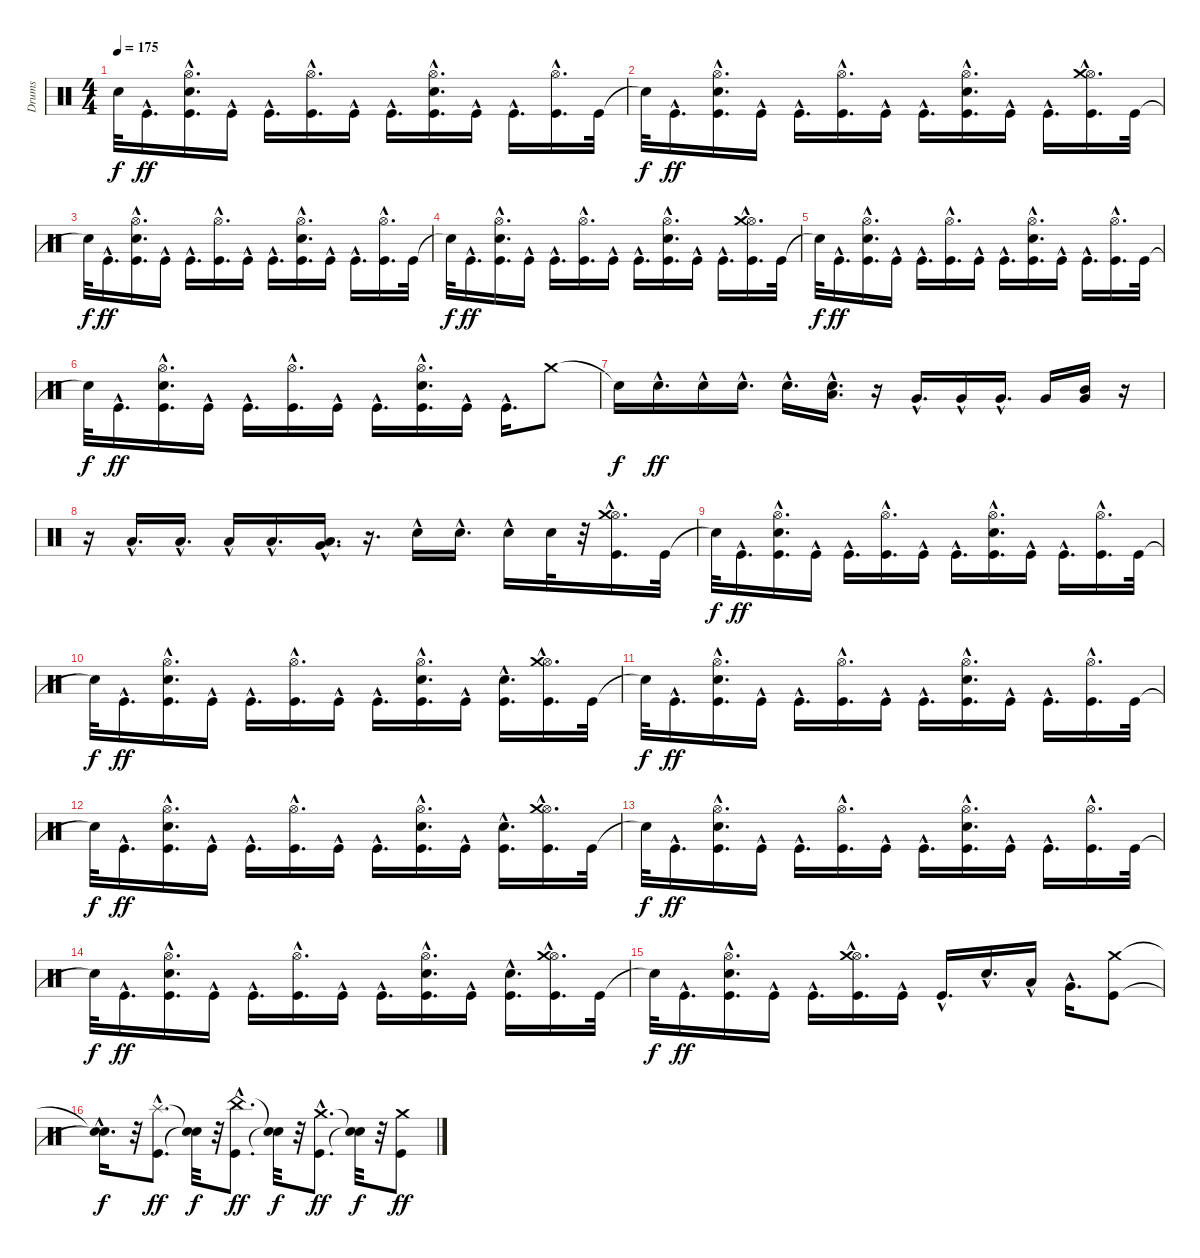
\track ("Drums" "Drums") {instrument percussion}
\staff {score}
\articulation defaults
\ts (4 4)
\tempo 175
\clef neutral
\ks c "Snare (hit)"{t}.32{dy f} "Kick (hit)"{hac}.16{d dy ff}
("Kick (hit)"{hac} "Electric Snare (hit)"{hac} "Hi-Hat (open)"{hac}).16{d} "Kick (hit)"{hac}.16 "Kick (hit)"{hac}.16{d} ("Kick (hit)"{hac} "Hi-Hat (open)"{hac}).16{d} "Kick (hit)"{hac}.16 "Kick (hit)"{hac}.16{d} ("Kick (hit)"{hac} "Electric Snare (hit)"{hac} "Hi-Hat (open)"{hac}).16{d} "Kick (hit)"{hac}.16 "Kick (hit)"{hac}.16{d} ("Kick (hit)"{hac} "Hi-Hat (open)"{hac}).16{d} "Kick (hit)".32 |
"Snare (hit)"{t}.32{dy f} "Kick (hit)"{hac}.16{d dy ff} ("Kick (hit)"{hac} "Electric Snare (hit)"{hac} "Hi-Hat (open)"{hac}).16{d} "Kick (hit)"{hac}.16 "Kick (hit)"{hac}.16{d} ("Kick (hit)"{hac} "Hi-Hat (open)"{hac}).16{d} "Kick (hit)"{hac}.16 "Kick (hit)"{hac}.16{d} ("Kick (hit)"{hac} "Electric Snare (hit)"{hac} "Hi-Hat (open)"{hac}).16{d} "Kick (hit)"{hac}.16 "Kick (hit)"{hac}.16{d} ("Kick (hit)"{hac} "Hi-Hat (open)"{hac} "Crash medium (hit)"{hac}).16{d} "Kick (hit)".32 |
"Snare (hit)"{t}.32{dy f} "Kick (hit)"{hac}.16{d dy ff} ("Kick (hit)"{hac} "Electric Snare (hit)"{hac} "Hi-Hat (open)"{hac}).16{d} "Kick (hit)"{hac}.16 "Kick (hit)"{hac}.16{d} ("Kick (hit)"{hac} "Hi-Hat (open)"{hac}).16{d} "Kick (hit)"{hac}.16 "Kick (hit)"{hac}.16{d} ("Kick (hit)"{hac} "Electric Snare (hit)"{hac} "Hi-Hat (open)"{hac}).16{d} "Kick (hit)"{hac}.16 "Kick (hit)"{hac}.16{d} ("Kick (hit)"{hac} "Hi-Hat (open)"{hac}).16{d} "Kick (hit)".32 |
"Snare (hit)"{t}.32{dy f} "Kick (hit)"{hac}.16{d dy ff} ("Kick (hit)"{hac} "Electric Snare (hit)"{hac} "Hi-Hat (open)"{hac}).16{d} "Kick (hit)"{hac}.16 "Kick (hit)"{hac}.16{d} ("Kick (hit)"{hac} "Hi-Hat (open)"{hac}).16{d} "Kick (hit)"{hac}.16 "Kick (hit)"{hac}.16{d} ("Kick (hit)"{hac} "Electric Snare (hit)"{hac} "Hi-Hat (open)"{hac}).16{d} "Kick (hit)"{hac}.16 "Kick (hit)"{hac}.16{d} ("Kick (hit)"{hac} "Hi-Hat (open)"{hac} "Crash medium (hit)"{hac}).16{d} "Kick (hit)".32 |
"Snare (hit)"{t}.32{dy f} "Kick (hit)"{hac}.16{d dy ff} ("Kick (hit)"{hac} "Electric Snare (hit)"{hac} "Hi-Hat (open)"{hac}).16{d} "Kick (hit)"{hac}.16 "Kick (hit)"{hac}.16{d} ("Kick (hit)"{hac} "Hi-Hat (open)"{hac}).16{d} "Kick (hit)"{hac}.16 "Kick (hit)"{hac}.16{d} ("Kick (hit)"{hac} "Electric Snare (hit)"{hac} "Hi-Hat (open)"{hac}).16{d} "Kick (hit)"{hac}.16 "Kick (hit)"{hac}.16{d} ("Kick (hit)"{hac} "Hi-Hat (open)"{hac}).16{d} "Kick (hit)".32 |
"Snare (hit)"{t}.32{dy f} "Kick (hit)"{hac}.16{d dy ff} ("Kick (hit)"{hac} "Electric Snare (hit)"{hac} "Hi-Hat (open)"{hac}).16{d} "Kick (hit)"{hac}.16 "Kick (hit)"{hac}.16{d} ("Kick (hit)"{hac} "Hi-Hat (open)"{hac}).16{d} "Kick (hit)"{hac}.16 "Kick (hit)"{hac}.16{d} ("Kick (hit)"{hac} "Electric Snare (hit)"{hac} "Hi-Hat (open)"{hac}).16{d} "Kick (hit)"{hac}.16 "Kick (hit)"{hac}.16{d} "Crash medium (hit)".8 |
"Snare (hit)"{t}.16{dy f} "Electric Snare (hit)"{hac}.16{d dy ff} "Electric Snare (hit)"{hac}.16 "Electric Snare (hit)"{hac}.16{d} "Electric Snare (hit)"{hac}.16{d} ("Electric Snare (hit)"{hac} "Low Tom (hit)"{hac}).16{d} r.16 "Very Low Tom (hit)"{hac}.16{d} "Very Low Tom (hit)"{hac}.16 "Very Low Tom (hit)"{hac}.16{d} "Very Low Tom (hit)".16 ("Very Low Tom (hit)" "Mid Tom (hit)").16 r.16 |
r.16 "Low Floor Tom (hit)"{hac}.16{d} "Low Floor Tom (hit)"{hac}.16{d} "Low Floor Tom (hit)"{hac}.16 "Low Floor Tom (hit)"{hac}.16{d} ("Low Floor Tom (hit)"{hac} "Very Low Tom (hit)"{hac}).16{d} r.16{d} "Electric Snare (hit)"{hac}.16 "Electric Snare (hit)"{hac}.16{d} "Electric Snare (hit)"{hac}.16 "Electric Snare (hit)".32 r.32 ("Kick (hit)"{hac} "Hi-Hat (open)"{hac} "Crash medium (hit)"{hac}).16{d} "Kick (hit)".32 |
"Snare (hit)"{t}.32{dy f} "Kick (hit)"{hac}.16{d dy ff} ("Kick (hit)"{hac} "Electric Snare (hit)"{hac} "Hi-Hat (open)"{hac}).16{d} "Kick (hit)"{hac}.16 "Kick (hit)"{hac}.16{d} ("Kick (hit)"{hac} "Hi-Hat (open)"{hac}).16{d} "Kick (hit)"{hac}.16 "Kick (hit)"{hac}.16{d} ("Kick (hit)"{hac} "Electric Snare (hit)"{hac} "Hi-Hat (open)"{hac}).16{d} "Kick (hit)"{hac}.16 "Kick (hit)"{hac}.16{d} ("Kick (hit)"{hac} "Hi-Hat (open)"{hac}).16{d} "Kick (hit)".32 |
"Snare (hit)"{t}.32{dy f} "Kick (hit)"{hac}.16{d dy ff} ("Kick (hit)"{hac} "Electric Snare (hit)"{hac} "Hi-Hat (open)"{hac}).16{d} "Kick (hit)"{hac}.16 "Kick (hit)"{hac}.16{d} ("Kick (hit)"{hac} "Hi-Hat (open)"{hac}).16{d} "Kick (hit)"{hac}.16 "Kick (hit)"{hac}.16{d} ("Kick (hit)"{hac} "Electric Snare (hit)"{hac} "Hi-Hat (open)"{hac}).16{d} "Kick (hit)"{hac}.16 ("Kick (hit)"{hac} "Electric Snare (hit)"{hac}).16{d} ("Kick (hit)"{hac} "Hi-Hat (open)"{hac} "Crash medium (hit)"{hac}).16{d} "Kick (hit)".32 |
"Snare (hit)"{t}.32{dy f} "Kick (hit)"{hac}.16{d dy ff} ("Kick (hit)"{hac} "Electric Snare (hit)"{hac} "Hi-Hat (open)"{hac}).16{d} "Kick (hit)"{hac}.16 "Kick (hit)"{hac}.16{d} ("Kick (hit)"{hac} "Hi-Hat (open)"{hac}).16{d} "Kick (hit)"{hac}.16 "Kick (hit)"{hac}.16{d} ("Kick (hit)"{hac} "Electric Snare (hit)"{hac} "Hi-Hat (open)"{hac}).16{d} "Kick (hit)"{hac}.16 "Kick (hit)"{hac}.16{d} ("Kick (hit)"{hac} "Hi-Hat (open)"{hac}).16{d} "Kick (hit)".32 |
"Snare (hit)"{t}.32{dy f} "Kick (hit)"{hac}.16{d dy ff} ("Kick (hit)"{hac} "Electric Snare (hit)"{hac} "Hi-Hat (open)"{hac}).16{d} "Kick (hit)"{hac}.16 "Kick (hit)"{hac}.16{d} ("Kick (hit)"{hac} "Hi-Hat (open)"{hac}).16{d} "Kick (hit)"{hac}.16 "Kick (hit)"{hac}.16{d} ("Kick (hit)"{hac} "Electric Snare (hit)"{hac} "Hi-Hat (open)"{hac}).16{d} "Kick (hit)"{hac}.16 ("Kick (hit)"{hac} "Electric Snare (hit)"{hac}).16{d} ("Kick (hit)"{hac} "Hi-Hat (open)"{hac} "Crash medium (hit)"{hac}).16{d} "Kick (hit)".32 |
"Snare (hit)"{t}.32{dy f} "Kick (hit)"{hac}.16{d dy ff} ("Kick (hit)"{hac} "Electric Snare (hit)"{hac} "Hi-Hat (open)"{hac}).16{d} "Kick (hit)"{hac}.16 "Kick (hit)"{hac}.16{d} ("Kick (hit)"{hac} "Hi-Hat (open)"{hac}).16{d} "Kick (hit)"{hac}.16 "Kick (hit)"{hac}.16{d} ("Kick (hit)"{hac} "Electric Snare (hit)"{hac} "Hi-Hat (open)"{hac}).16{d} "Kick (hit)"{hac}.16 "Kick (hit)"{hac}.16{d} ("Kick (hit)"{hac} "Hi-Hat (open)"{hac}).16{d} "Kick (hit)".32 |
"Snare (hit)"{t}.32{dy f} "Kick (hit)"{hac}.16{d dy ff} ("Kick (hit)"{hac} "Electric Snare (hit)"{hac} "Hi-Hat (open)"{hac}).16{d} "Kick (hit)"{hac}.16 "Kick (hit)"{hac}.16{d} ("Kick (hit)"{hac} "Hi-Hat (open)"{hac}).16{d} "Kick (hit)"{hac}.16 "Kick (hit)"{hac}.16{d} ("Kick (hit)"{hac} "Electric Snare (hit)"{hac} "Hi-Hat (open)"{hac}).16{d} "Kick (hit)"{hac}.16 ("Kick (hit)"{hac} "Electric Snare (hit)"{hac}).16{d} ("Kick (hit)"{hac} "Hi-Hat (open)"{hac} "Crash medium (hit)"{hac}).16{d} "Kick (hit)".32 |
"Snare (hit)"{t}.32{dy f} "Kick (hit)"{hac}.16{d dy ff} ("Kick (hit)"{hac} "Electric Snare (hit)"{hac} "Hi-Hat (open)"{hac}).16{d} "Kick (hit)"{hac}.16 "Kick (hit)"{hac}.16{d} ("Kick (hit)"{hac} "Hi-Hat (open)"{hac} "Crash medium (hit)"{hac}).16{d} "Kick (hit)"{hac}.16 "Kick (hit)"{hac}.16{d} "Electric Snare (hit)"{hac}.16{d} "Low Tom (hit)"{hac}.16 "Very Low Tom (hit)"{hac}.16{d} ("Kick (hit)" "Crash medium (hit)").8 |
("Snare (hit)"{hac t} "Snare (hit)"{hac t}).16{d dy f} r.32 ("Kick (hit)"{hac} "Splash (hit)"{hac}).8{d dy ff} ("Snare (hit)"{t} "Snare (hit)"{t}).32{dy f} r.32 ("Kick (hit)"{hac} "China (hit)"{hac}).8{d dy ff} ("Snare (hit)"{t} "Snare (hit)"{t}).32{dy f} r.32 ("Kick (hit)"{hac} "Crash medium (hit)"{hac}).8{d dy ff} ("Snare (hit)"{t} "Snare (hit)"{t}).32{dy f} r.32 ("Kick (hit)" "Crash medium (hit)").8{dy ff}
